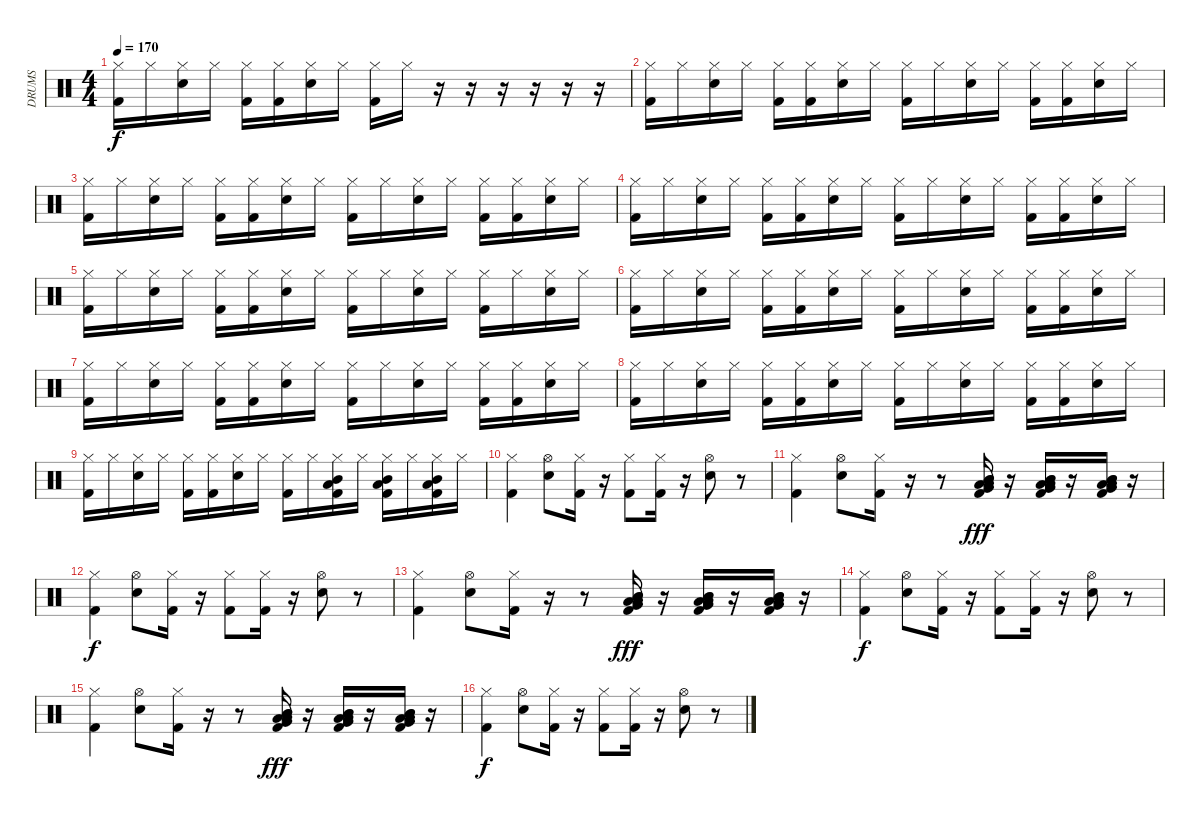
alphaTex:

\track ("DRUMS" "DRUMS") {instrument percussion}
\staff {score}
\articulation defaults
\ts (4 4)
\tempo 170
\clef neutral
\ks c
("Hi-Hat (closed)" "Kick (hit) 2").16{dy f} "Hi-Hat (closed)".16 ("Hi-Hat (closed)" "Electric Snare (hit)").16 "Hi-Hat (closed)".16 ("Hi-Hat (closed)" "Kick (hit) 2").16 ("Hi-Hat (closed)" "Kick (hit) 2").16 ("Hi-Hat (closed)" "Electric Snare (hit)").16 "Hi-Hat (closed)".16 ("Hi-Hat (closed)" "Kick (hit) 2").16 "Hi-Hat (closed)".16 r.16 r.16 r.16 r.16 r.16 r.16 |
("Hi-Hat (closed)" "Kick (hit) 2").16 "Hi-Hat (closed)".16 ("Hi-Hat (closed)" "Electric Snare (hit)").16 "Hi-Hat (closed)".16 ("Hi-Hat (closed)" "Kick (hit) 2").16 ("Hi-Hat (closed)" "Kick (hit) 2").16 ("Hi-Hat (closed)" "Electric Snare (hit)").16 "Hi-Hat (closed)".16 ("Hi-Hat (closed)" "Kick (hit) 2").16 "Hi-Hat (closed)".16 ("Hi-Hat (closed)" "Electric Snare (hit)").16 "Hi-Hat (closed)".16 ("Hi-Hat (closed)" "Kick (hit) 2").16 ("Hi-Hat (closed)" "Kick (hit) 2").16 ("Hi-Hat (closed)" "Electric Snare (hit)").16 "Hi-Hat (closed)".16 |
("Hi-Hat (closed)" "Kick (hit) 2").16 "Hi-Hat (closed)".16 ("Hi-Hat (closed)" "Electric Snare (hit)").16 "Hi-Hat (closed)".16 ("Hi-Hat (closed)" "Kick (hit) 2").16 ("Hi-Hat (closed)" "Kick (hit) 2").16 ("Hi-Hat (closed)" "Electric Snare (hit)").16 "Hi-Hat (closed)".16 ("Hi-Hat (closed)" "Kick (hit) 2").16 "Hi-Hat (closed)".16 ("Hi-Hat (closed)" "Electric Snare (hit)").16 "Hi-Hat (closed)".16 ("Hi-Hat (closed)" "Kick (hit) 2").16 ("Hi-Hat (closed)" "Kick (hit) 2").16 ("Hi-Hat (closed)" "Electric Snare (hit)").16 "Hi-Hat (closed)".16 |
("Hi-Hat (closed)" "Kick (hit) 2").16 "Hi-Hat (closed)".16 ("Hi-Hat (closed)" "Electric Snare (hit)").16 "Hi-Hat (closed)".16 ("Hi-Hat (closed)" "Kick (hit) 2").16 ("Hi-Hat (closed)" "Kick (hit) 2").16 ("Hi-Hat (closed)" "Electric Snare (hit)").16 "Hi-Hat (closed)".16 ("Hi-Hat (closed)" "Kick (hit) 2").16 "Hi-Hat (closed)".16 ("Hi-Hat (closed)" "Electric Snare (hit)").16 "Hi-Hat (closed)".16 ("Hi-Hat (closed)" "Kick (hit) 2").16 ("Hi-Hat (closed)" "Kick (hit) 2").16 ("Hi-Hat (closed)" "Electric Snare (hit)").16 "Hi-Hat (closed)".16 |
("Hi-Hat (closed)" "Kick (hit) 2").16 "Hi-Hat (closed)".16 ("Hi-Hat (closed)" "Electric Snare (hit)").16 "Hi-Hat (closed)".16 ("Hi-Hat (closed)" "Kick (hit) 2").16 ("Hi-Hat (closed)" "Kick (hit) 2").16 ("Hi-Hat (closed)" "Electric Snare (hit)").16 "Hi-Hat (closed)".16 ("Hi-Hat (closed)" "Kick (hit) 2").16 "Hi-Hat (closed)".16 ("Hi-Hat (closed)" "Electric Snare (hit)").16 "Hi-Hat (closed)".16 ("Hi-Hat (closed)" "Kick (hit) 2").16 "Hi-Hat (closed)".16 ("Hi-Hat (closed)" "Electric Snare (hit)").16 "Hi-Hat (closed)".16 |
("Hi-Hat (closed)" "Kick (hit) 2").16 "Hi-Hat (closed)".16 ("Hi-Hat (closed)" "Electric Snare (hit)").16 "Hi-Hat (closed)".16 ("Hi-Hat (closed)" "Kick (hit) 2").16 ("Hi-Hat (closed)" "Kick (hit) 2").16 ("Hi-Hat (closed)" "Electric Snare (hit)").16 "Hi-Hat (closed)".16 ("Hi-Hat (closed)" "Kick (hit) 2").16 "Hi-Hat (closed)".16 ("Hi-Hat (closed)" "Electric Snare (hit)").16 "Hi-Hat (closed)".16 ("Hi-Hat (closed)" "Kick (hit) 2").16 ("Hi-Hat (closed)" "Kick (hit) 2").16 ("Hi-Hat (closed)" "Electric Snare (hit)").16 "Hi-Hat (closed)".16 |
("Hi-Hat (closed)" "Kick (hit) 2").16 "Hi-Hat (closed)".16 ("Hi-Hat (closed)" "Electric Snare (hit)").16 "Hi-Hat (closed)".16 ("Hi-Hat (closed)" "Kick (hit) 2").16 ("Hi-Hat (closed)" "Kick (hit) 2").16 ("Hi-Hat (closed)" "Electric Snare (hit)").16 "Hi-Hat (closed)".16 ("Hi-Hat (closed)" "Kick (hit) 2").16 "Hi-Hat (closed)".16 ("Hi-Hat (closed)" "Electric Snare (hit)").16 "Hi-Hat (closed)".16 ("Hi-Hat (closed)" "Kick (hit) 2").16 ("Hi-Hat (closed)" "Kick (hit) 2").16 ("Hi-Hat (closed)" "Electric Snare (hit)").16 "Hi-Hat (closed)".16 |
("Hi-Hat (closed)" "Kick (hit) 2").16 "Hi-Hat (closed)".16 ("Hi-Hat (closed)" "Electric Snare (hit)").16 "Hi-Hat (closed)".16 ("Hi-Hat (closed)" "Kick (hit) 2").16 ("Hi-Hat (closed)" "Kick (hit) 2").16 ("Hi-Hat (closed)" "Electric Snare (hit)").16 "Hi-Hat (closed)".16 ("Hi-Hat (closed)" "Kick (hit) 2").16 "Hi-Hat (closed)".16 ("Hi-Hat (closed)" "Electric Snare (hit)").16 "Hi-Hat (closed)".16 ("Hi-Hat (closed)" "Kick (hit) 2").16 ("Hi-Hat (closed)" "Kick (hit) 2").16 ("Hi-Hat (closed)" "Electric Snare (hit)").16 "Hi-Hat (closed)".16 |
("Hi-Hat (closed)" "Kick (hit) 2").16 "Hi-Hat (closed)".16 ("Hi-Hat (closed)" "Electric Snare (hit)").16 "Hi-Hat (closed)".16 ("Hi-Hat (closed)" "Kick (hit) 2").16 ("Hi-Hat (closed)" "Kick (hit) 2").16 ("Hi-Hat (closed)" "Electric Snare (hit)").16 "Hi-Hat (closed)".16 ("Hi-Hat (closed)" "Kick (hit) 2").16 "Hi-Hat (closed)".16 ("Hi-Hat (closed)" "Kick (hit) 2" "Mid Tom (hit)" "Low Floor Tom (hit)").16 "Hi-Hat (closed)".16 ("Hi-Hat (closed)" "Kick (hit) 2" "Mid Tom (hit)" "Low Floor Tom (hit)").16 "Hi-Hat (closed)".16 ("Hi-Hat (closed)" "Kick (hit) 2" "Mid Tom (hit)" "Low Floor Tom (hit)").16 "Hi-Hat (closed)".16 |
("Hi-Hat (closed)" "Kick (hit) 2").4 ("Hi-Hat (open)" "Electric Snare (hit)").8 ("Hi-Hat (closed)" "Kick (hit) 2").16 r.16 ("Hi-Hat (closed)" "Kick (hit) 2").8 ("Hi-Hat (closed)" "Kick (hit) 2").16 r.16 ("Hi-Hat (open)" "Electric Snare (hit)").8 r.8 |
("Hi-Hat (closed)" "Kick (hit) 2").4 ("Hi-Hat (open)" "Electric Snare (hit)").8 ("Hi-Hat (closed)" "Kick (hit) 2").16 r.16 r.8 ("Mid Tom (hit)" "Low Floor Tom (hit)" "Very Low Tom (hit)" "Kick (hit) 2" "Mid Tom (hit)" "Low Floor Tom (hit)").16{dy fff} r.16 ("Mid Tom (hit)" "Low Floor Tom (hit)" "Very Low Tom (hit)" "Kick (hit) 2" "Mid Tom (hit)" "Low Floor Tom (hit)").16 r.16 ("Mid Tom (hit)" "Low Floor Tom (hit)" "Very Low Tom (hit)" "Kick (hit) 2" "Mid Tom (hit)" "Low Floor Tom (hit)").16 r.16 |
("Hi-Hat (closed)" "Kick (hit) 2").4{dy f} ("Hi-Hat (open)" "Electric Snare (hit)").8 ("Hi-Hat (closed)" "Kick (hit) 2").16 r.16 ("Hi-Hat (closed)" "Kick (hit) 2").8 ("Hi-Hat (closed)" "Kick (hit) 2").16 r.16 ("Hi-Hat (open)" "Electric Snare (hit)").8 r.8 |
("Hi-Hat (closed)" "Kick (hit) 2").4 ("Hi-Hat (open)" "Electric Snare (hit)").8 ("Hi-Hat (closed)" "Kick (hit) 2").16 r.16 r.8 ("Mid Tom (hit)" "Low Floor Tom (hit)" "Very Low Tom (hit)" "Kick (hit) 2" "Mid Tom (hit)" "Low Floor Tom (hit)").16{dy fff} r.16 ("Mid Tom (hit)" "Low Floor Tom (hit)" "Very Low Tom (hit)" "Kick (hit) 2" "Mid Tom (hit)" "Low Floor Tom (hit)").16 r.16 ("Mid Tom (hit)" "Low Floor Tom (hit)" "Very Low Tom (hit)" "Kick (hit) 2" "Mid Tom (hit)" "Low Floor Tom (hit)").16 r.16 |
("Hi-Hat (closed)" "Kick (hit) 2").4{dy f} ("Hi-Hat (open)" "Electric Snare (hit)").8 ("Hi-Hat (closed)" "Kick (hit) 2").16 r.16 ("Hi-Hat (closed)" "Kick (hit) 2").8 ("Hi-Hat (closed)" "Kick (hit) 2").16 r.16 ("Hi-Hat (open)" "Electric Snare (hit)").8 r.8 |
("Hi-Hat (closed)" "Kick (hit) 2").4 ("Hi-Hat (open)" "Electric Snare (hit)").8 ("Hi-Hat (closed)" "Kick (hit) 2").16 r.16 r.8 ("Mid Tom (hit)" "Low Floor Tom (hit)" "Very Low Tom (hit)" "Kick (hit) 2" "Mid Tom (hit)" "Low Floor Tom (hit)").16{dy fff} r.16 ("Mid Tom (hit)" "Low Floor Tom (hit)" "Very Low Tom (hit)" "Kick (hit) 2" "Mid Tom (hit)" "Low Floor Tom (hit)").16 r.16 ("Mid Tom (hit)" "Low Floor Tom (hit)" "Very Low Tom (hit)" "Kick (hit) 2" "Mid Tom (hit)" "Low Floor Tom (hit)").16 r.16 |
("Hi-Hat (closed)" "Kick (hit) 2").4{dy f} ("Hi-Hat (open)" "Electric Snare (hit)").8 ("Hi-Hat (closed)" "Kick (hit) 2").16 r.16 ("Hi-Hat (closed)" "Kick (hit) 2").8 ("Hi-Hat (closed)" "Kick (hit) 2").16 r.16 ("Hi-Hat (open)" "Electric Snare (hit)").8 r.8
